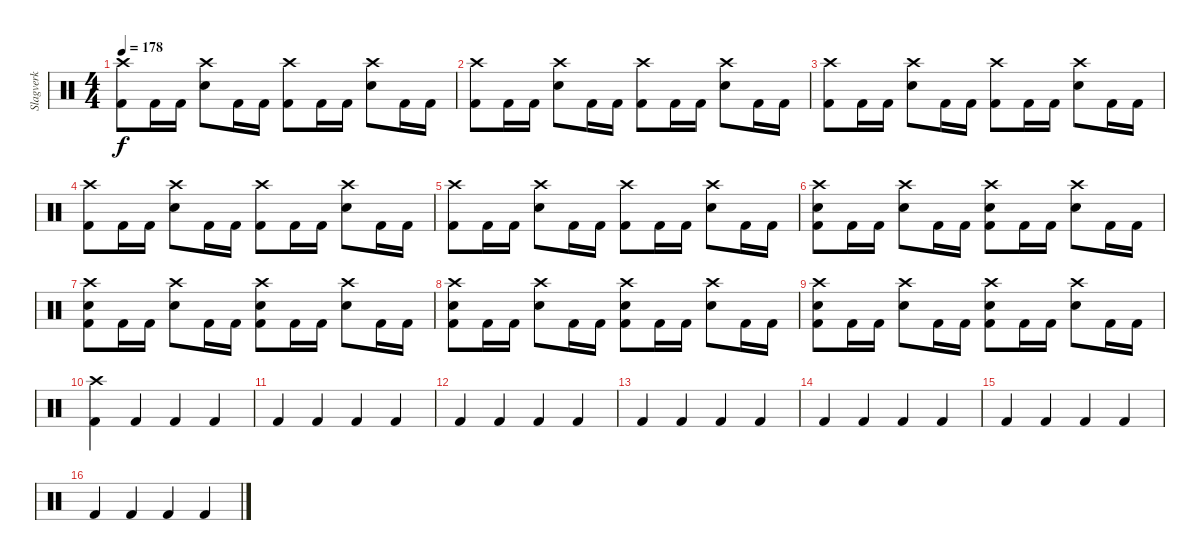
\track ("Slagverk" "Slagverk") {instrument percussion}
\staff {score}
\articulation defaults
\ts (4 4)
\tempo 178
\clef neutral
\ks c
("Crash high (hit)" "Kick (hit) 2").8{dy f} "Kick (hit) 2".16 "Kick (hit) 2".16 ("Crash high (hit)" "Electric Snare (hit)").8 "Kick (hit) 2".16 "Kick (hit) 2".16 ("Crash high (hit)" "Kick (hit) 2").8 "Kick (hit) 2".16 "Kick (hit) 2".16 ("Crash high (hit)" "Electric Snare (hit)").8 "Kick (hit) 2".16 "Kick (hit) 2".16 |
("Crash high (hit)" "Kick (hit) 2").8 "Kick (hit) 2".16 "Kick (hit) 2".16 ("Crash high (hit)" "Electric Snare (hit)").8 "Kick (hit) 2".16 "Kick (hit) 2".16 ("Crash high (hit)" "Kick (hit) 2").8 "Kick (hit) 2".16 "Kick (hit) 2".16 ("Crash high (hit)" "Electric Snare (hit)").8 "Kick (hit) 2".16 "Kick (hit) 2".16 |
("Crash high (hit)" "Kick (hit) 2").8 "Kick (hit) 2".16 "Kick (hit) 2".16 ("Crash high (hit)" "Electric Snare (hit)").8 "Kick (hit) 2".16 "Kick (hit) 2".16 ("Crash high (hit)" "Kick (hit) 2").8 "Kick (hit) 2".16 "Kick (hit) 2".16 ("Crash high (hit)" "Electric Snare (hit)").8 "Kick (hit) 2".16 "Kick (hit) 2".16 |
("Crash high (hit)" "Kick (hit) 2").8 "Kick (hit) 2".16 "Kick (hit) 2".16 ("Crash high (hit)" "Electric Snare (hit)").8 "Kick (hit) 2".16 "Kick (hit) 2".16 ("Crash high (hit)" "Kick (hit) 2").8 "Kick (hit) 2".16 "Kick (hit) 2".16 ("Crash high (hit)" "Electric Snare (hit)").8 "Kick (hit) 2".16 "Kick (hit) 2".16 |
("Crash high (hit)" "Kick (hit) 2").8 "Kick (hit) 2".16 "Kick (hit) 2".16 ("Crash high (hit)" "Electric Snare (hit)").8 "Kick (hit) 2".16 "Kick (hit) 2".16 ("Crash high (hit)" "Kick (hit) 2").8 "Kick (hit) 2".16 "Kick (hit) 2".16 ("Crash high (hit)" "Electric Snare (hit)").8 "Kick (hit) 2".16 "Kick (hit) 2".16 |
("Crash high (hit)" "Electric Snare (hit)" "Kick (hit) 2").8 "Kick (hit) 2".16 "Kick (hit) 2".16 ("Crash high (hit)" "Electric Snare (hit)").8 "Kick (hit) 2".16 "Kick (hit) 2".16 ("Crash high (hit)" "Electric Snare (hit)" "Kick (hit) 2").8 "Kick (hit) 2".16 "Kick (hit) 2".16 ("Crash high (hit)" "Electric Snare (hit)").8 "Kick (hit) 2".16 "Kick (hit) 2".16 |
("Crash high (hit)" "Electric Snare (hit)" "Kick (hit) 2").8 "Kick (hit) 2".16 "Kick (hit) 2".16 ("Crash high (hit)" "Electric Snare (hit)").8 "Kick (hit) 2".16 "Kick (hit) 2".16 ("Crash high (hit)" "Electric Snare (hit)" "Kick (hit) 2").8 "Kick (hit) 2".16 "Kick (hit) 2".16 ("Crash high (hit)" "Electric Snare (hit)").8 "Kick (hit) 2".16 "Kick (hit) 2".16 |
("Crash high (hit)" "Electric Snare (hit)" "Kick (hit) 2").8 "Kick (hit) 2".16 "Kick (hit) 2".16 ("Crash high (hit)" "Electric Snare (hit)").8 "Kick (hit) 2".16 "Kick (hit) 2".16 ("Crash high (hit)" "Electric Snare (hit)" "Kick (hit) 2").8 "Kick (hit) 2".16 "Kick (hit) 2".16 ("Crash high (hit)" "Electric Snare (hit)").8 "Kick (hit) 2".16 "Kick (hit) 2".16 |
("Crash high (hit)" "Electric Snare (hit)" "Kick (hit) 2").8 "Kick (hit) 2".16 "Kick (hit) 2".16 ("Crash high (hit)" "Electric Snare (hit)").8 "Kick (hit) 2".16 "Kick (hit) 2".16 ("Crash high (hit)" "Electric Snare (hit)" "Kick (hit) 2").8 "Kick (hit) 2".16 "Kick (hit) 2".16 ("Crash high (hit)" "Electric Snare (hit)").8 "Kick (hit) 2".16 "Kick (hit) 2".16 |
("Crash high (hit)" "Kick (hit) 2").4 "Kick (hit) 2".4 "Kick (hit) 2".4 "Kick (hit) 2".4 |
"Kick (hit) 2".4 "Kick (hit) 2".4 "Kick (hit) 2".4 "Kick (hit) 2".4 |
"Kick (hit) 2".4 "Kick (hit) 2".4 "Kick (hit) 2".4 "Kick (hit) 2".4 |
"Kick (hit) 2".4 "Kick (hit) 2".4 "Kick (hit) 2".4 "Kick (hit) 2".4 |
"Kick (hit) 2".4 "Kick (hit) 2".4 "Kick (hit) 2".4 "Kick (hit) 2".4 |
"Kick (hit) 2".4 "Kick (hit) 2".4 "Kick (hit) 2".4 "Kick (hit) 2".4 |
"Kick (hit) 2".4 "Kick (hit) 2".4 "Kick (hit) 2".4 "Kick (hit) 2".4
